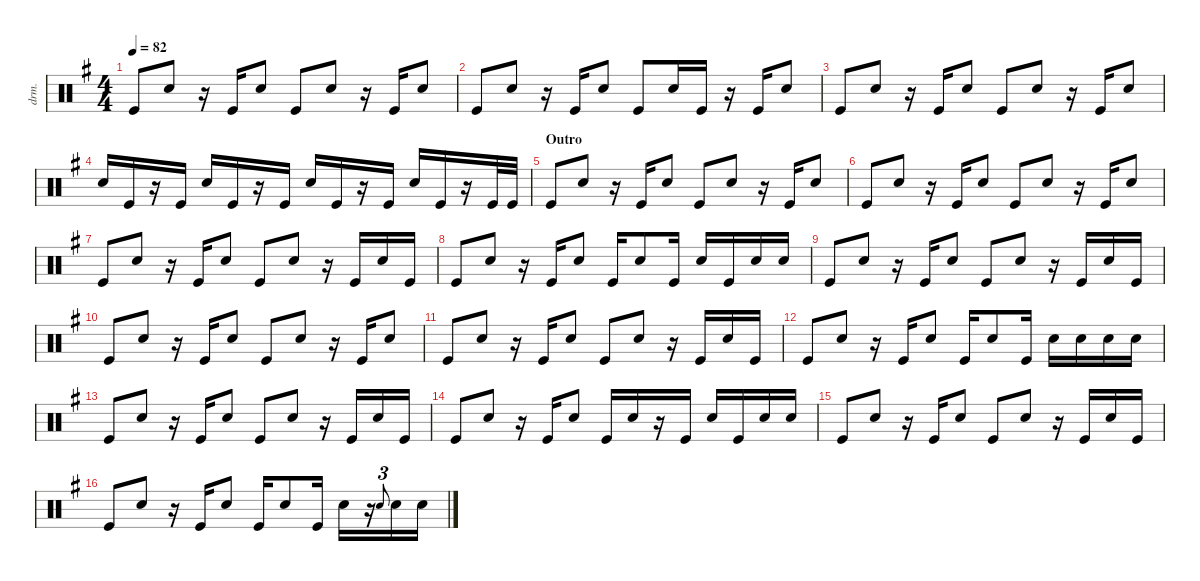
\defaultSystemsLayout 2
\hideDynamics
\bracketExtendMode nobrackets
\otherSystemsTrackNameOrientation horizontal
\track ("Drums" "drm.") {instrument percussion}
\staff {score}
\articulation defaults
\ts (4 4)
\tempo 82
\clef neutral
\ks g "Kick (hit)".8{dy f} "Snare (hit) 2".8
r.16 "Kick (hit)".16 "Snare (hit) 2".8 "Kick (hit)".8 "Snare (hit) 2".8 r.16 "Kick (hit)".16 "Snare (hit) 2".8 |
"Kick (hit)".8 "Snare (hit) 2".8 r.16 "Kick (hit)".16 "Snare (hit) 2".8 "Kick (hit)".8 "Snare (hit) 2".16 "Kick (hit)".16 r.16 "Kick (hit)".16 "Snare (hit) 2".8 |
"Kick (hit)".8 "Snare (hit) 2".8 r.16 "Kick (hit)".16 "Snare (hit) 2".8 "Kick (hit)".8 "Snare (hit) 2".8 r.16 "Kick (hit)".16 "Snare (hit) 2".8 |
"Snare (hit) 2".16 "Kick (hit)".16 r.16 "Kick (hit)".16 "Snare (hit) 2".16 "Kick (hit)".16 r.16 "Kick (hit)".16 "Snare (hit) 2".16 "Kick (hit)".16 r.16 "Kick (hit)".16 "Snare (hit) 2".16 "Kick (hit)".16 r.16 "Kick (hit)".32 "Kick (hit)".32 |
\beaming (8 2 2 2 2)
\section ("" "Outro")
"Kick (hit)".8 "Snare (hit) 2".8 r.16 "Kick (hit)".16 "Snare (hit) 2".8 "Kick (hit)".8 "Snare (hit) 2".8 r.16 "Kick (hit)".16 "Snare (hit) 2".8 |
"Kick (hit)".8 "Snare (hit) 2".8 r.16 "Kick (hit)".16 "Snare (hit) 2".8 "Kick (hit)".8 "Snare (hit) 2".8 r.16 "Kick (hit)".16 "Snare (hit) 2".8 |
"Kick (hit)".8 "Snare (hit) 2".8 r.16 "Kick (hit)".16 "Snare (hit) 2".8 "Kick (hit)".8 "Snare (hit) 2".8 r.16 "Kick (hit)".16 "Snare (hit) 2".16 "Kick (hit)".16 |
"Kick (hit)".8 "Snare (hit) 2".8 r.16 "Kick (hit)".16 "Snare (hit) 2".8 "Kick (hit)".16 "Snare (hit) 2".8 "Kick (hit)".16 "Snare (hit) 2".16 "Kick (hit)".16 "Snare (hit) 2".16 "Snare (hit) 2".16 |
"Kick (hit)".8 "Snare (hit) 2".8 r.16 "Kick (hit)".16 "Snare (hit) 2".8 "Kick (hit)".8 "Snare (hit) 2".8 r.16 "Kick (hit)".16 "Snare (hit) 2".16 "Kick (hit)".16 |
"Kick (hit)".8 "Snare (hit) 2".8 r.16 "Kick (hit)".16 "Snare (hit) 2".8 "Kick (hit)".8 "Snare (hit) 2".8 r.16 "Kick (hit)".16 "Snare (hit) 2".8 |
"Kick (hit)".8 "Snare (hit) 2".8 r.16 "Kick (hit)".16 "Snare (hit) 2".8 "Kick (hit)".8 "Snare (hit) 2".8 r.16 "Kick (hit)".16 "Snare (hit) 2".16 "Kick (hit)".16 |
"Kick (hit)".8 "Snare (hit) 2".8 r.16 "Kick (hit)".16 "Snare (hit) 2".8 "Kick (hit)".16 "Snare (hit) 2".8 "Kick (hit)".16 "Snare (hit) 2".16 "Snare (hit) 2".16 "Snare (hit) 2".16 "Snare (hit) 2".16 |
"Kick (hit)".8 "Snare (hit) 2".8 r.16 "Kick (hit)".16 "Snare (hit) 2".8 "Kick (hit)".8 "Snare (hit) 2".8 r.16 "Kick (hit)".16 "Snare (hit) 2".16 "Kick (hit)".16 |
"Kick (hit)".8 "Snare (hit) 2".8 r.16 "Kick (hit)".16 "Snare (hit) 2".8 "Kick (hit)".16 "Snare (hit) 2".16 r.16 "Kick (hit)".16 "Snare (hit) 2".16 "Kick (hit)".16 "Snare (hit) 2".16 "Snare (hit) 2".16 |
"Kick (hit)".8 "Snare (hit) 2".8 r.16 "Kick (hit)".16 "Snare (hit) 2".8 "Kick (hit)".8 "Snare (hit) 2".8 r.16 "Kick (hit)".16 "Snare (hit) 2".16 "Kick (hit)".16 |
"Kick (hit)".8 "Snare (hit) 2".8 r.16 "Kick (hit)".16 "Snare (hit) 2".8 "Kick (hit)".16 "Snare (hit) 2".8 "Kick (hit)".16 "Snare (hit) 2".16 r.16 "Snare (hit) 2".8{tu (3 2) gr onbeat} "Snare (hit) 2".16 "Snare (hit) 2".16
